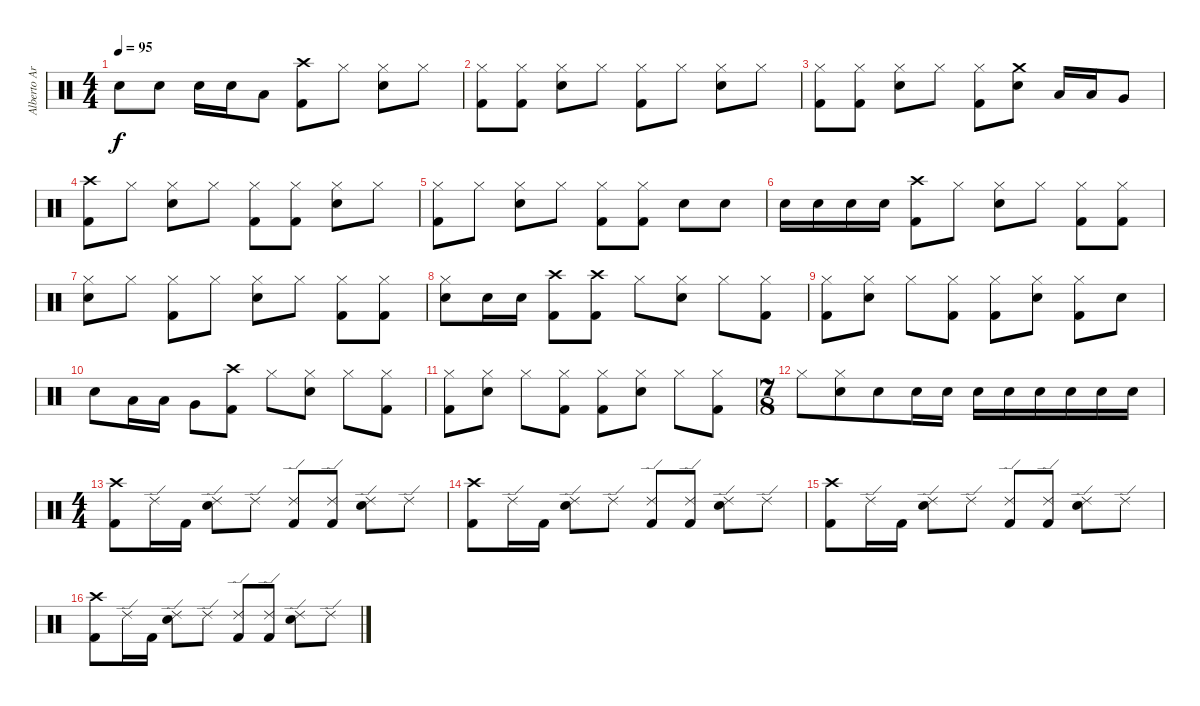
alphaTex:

\track ("Alberto Ardines (Batería)" "Alberto Ar") {instrument percussion}
\staff {score}
\articulation defaults
\ts (4 4)
\tempo 95
\clef neutral
\ks c "Electric Snare (hit)".8{dy f} "Electric Snare (hit)".8 "Electric Snare (hit)".16 "Electric Snare (hit)".16 "Low Tom (hit)".8
("Crash high (hit)" "Kick (hit) 2").8 "Hi-Hat (closed)".8 ("Hi-Hat (closed)" "Electric Snare (hit)").8 "Hi-Hat (closed)".8 |
("Hi-Hat (closed)" "Kick (hit) 2").8 ("Hi-Hat (closed)" "Kick (hit) 2").8 ("Hi-Hat (closed)" "Electric Snare (hit)").8 "Hi-Hat (closed)".8 ("Hi-Hat (closed)" "Kick (hit) 2").8 "Hi-Hat (closed)".8 ("Hi-Hat (closed)" "Electric Snare (hit)").8 "Hi-Hat (closed)".8 |
("Hi-Hat (closed)" "Kick (hit) 2").8 ("Hi-Hat (closed)" "Kick (hit) 2").8 ("Hi-Hat (closed)" "Electric Snare (hit)").8 "Hi-Hat (closed)".8 ("Hi-Hat (closed)" "Kick (hit) 2").8 ("Crash medium (hit)" "Electric Snare (hit)").8 "Low Tom (hit)".16 "Low Tom (hit)".16 "Very Low Tom (hit)".8 |
("Crash high (hit)" "Kick (hit) 2").8 "Hi-Hat (closed)".8 ("Hi-Hat (closed)" "Electric Snare (hit)").8 "Hi-Hat (closed)".8 ("Hi-Hat (closed)" "Kick (hit) 2").8 ("Hi-Hat (closed)" "Kick (hit) 2").8 ("Hi-Hat (closed)" "Electric Snare (hit)").8 "Hi-Hat (closed)".8 |
("Hi-Hat (closed)" "Kick (hit) 2").8 "Hi-Hat (closed)".8 ("Hi-Hat (closed)" "Electric Snare (hit)").8 "Hi-Hat (closed)".8 ("Hi-Hat (closed)" "Kick (hit) 2").8 ("Hi-Hat (closed)" "Kick (hit) 2").8 "Electric Snare (hit)".8 "Electric Snare (hit)".8 |
"Electric Snare (hit)".16 "Electric Snare (hit)".16 "Electric Snare (hit)".16 "Electric Snare (hit)".16 ("Crash high (hit)" "Kick (hit) 2").8 "Hi-Hat (closed)".8 ("Hi-Hat (closed)" "Electric Snare (hit)").8 "Hi-Hat (closed)".8 ("Hi-Hat (closed)" "Kick (hit) 2").8 ("Hi-Hat (closed)" "Kick (hit) 2").8 |
("Hi-Hat (closed)" "Electric Snare (hit)").8 "Hi-Hat (closed)".8 ("Hi-Hat (closed)" "Kick (hit) 2").8 "Hi-Hat (closed)".8 ("Hi-Hat (closed)" "Electric Snare (hit)").8 "Hi-Hat (closed)".8 ("Hi-Hat (closed)" "Kick (hit) 2").8 ("Hi-Hat (closed)" "Kick (hit) 2").8 |
("Hi-Hat (closed)" "Electric Snare (hit)").8 "Electric Snare (hit)".16 "Electric Snare (hit)".16 ("Crash high (hit)" "Kick (hit) 2").8 ("Crash high (hit)" "Kick (hit) 2").8 "Hi-Hat (closed)".8 ("Hi-Hat (closed)" "Electric Snare (hit)").8 "Hi-Hat (closed)".8 ("Hi-Hat (closed)" "Kick (hit) 2").8 |
("Hi-Hat (closed)" "Kick (hit) 2").8 ("Hi-Hat (closed)" "Electric Snare (hit)").8 "Hi-Hat (closed)".8 ("Hi-Hat (closed)" "Kick (hit) 2").8 ("Hi-Hat (closed)" "Kick (hit) 2").8 ("Hi-Hat (closed)" "Electric Snare (hit)").8 ("Hi-Hat (closed)" "Kick (hit) 2").8 "Electric Snare (hit)".8 |
"Electric Snare (hit)".8 "Low Tom (hit)".16 "Low Tom (hit)".16 "Very Low Tom (hit)".8 ("Crash high (hit)" "Kick (hit) 2").8 "Hi-Hat (closed)".8 ("Hi-Hat (closed)" "Electric Snare (hit)").8 "Hi-Hat (closed)".8 ("Hi-Hat (closed)" "Kick (hit) 2").8 |
("Hi-Hat (closed)" "Kick (hit) 2").8 ("Hi-Hat (closed)" "Electric Snare (hit)").8 "Hi-Hat (closed)".8 ("Hi-Hat (closed)" "Kick (hit) 2").8 ("Hi-Hat (closed)" "Kick (hit) 2").8 ("Hi-Hat (closed)" "Electric Snare (hit)").8 "Hi-Hat (closed)".8 ("Hi-Hat (closed)" "Kick (hit) 2").8 |
\ts (7 8)
"Hi-Hat (closed)".8 ("Hi-Hat (closed)" "Electric Snare (hit)").8 "Electric Snare (hit)".8 "Electric Snare (hit)".16 "Electric Snare (hit)".16 "Electric Snare (hit)".16 "Electric Snare (hit)".16 "Electric Snare (hit)".16 "Electric Snare (hit)".16 "Electric Snare (hit)".16 "Electric Snare (hit)".16 |
\ts (4 4)
("Crash high (hit)" "Kick (hit) 2").8 "Ride (edge) 2".16 "Kick (hit) 2".16 ("Ride (edge) 2" "Electric Snare (hit)").8 "Ride (edge) 2".8 ("Ride (edge) 2" "Kick (hit) 2").8 ("Ride (edge) 2" "Kick (hit) 2").8 ("Ride (edge) 2" "Electric Snare (hit)").8 "Ride (edge) 2".8 |
("Crash high (hit)" "Kick (hit) 2").8 "Ride (edge) 2".16 "Kick (hit) 2".16 ("Ride (edge) 2" "Electric Snare (hit)").8 "Ride (edge) 2".8 ("Ride (edge) 2" "Kick (hit) 2").8 ("Ride (edge) 2" "Kick (hit) 2").8 ("Ride (edge) 2" "Electric Snare (hit)").8 "Ride (edge) 2".8 |
("Crash high (hit)" "Kick (hit) 2").8 "Ride (edge) 2".16 "Kick (hit) 2".16 ("Ride (edge) 2" "Electric Snare (hit)").8 "Ride (edge) 2".8 ("Ride (edge) 2" "Kick (hit) 2").8 ("Ride (edge) 2" "Kick (hit) 2").8 ("Ride (edge) 2" "Electric Snare (hit)").8 "Ride (edge) 2".8 |
("Crash high (hit)" "Kick (hit) 2").8 "Ride (edge) 2".16 "Kick (hit) 2".16 ("Ride (edge) 2" "Electric Snare (hit)").8 "Ride (edge) 2".8 ("Ride (edge) 2" "Kick (hit) 2").8 ("Ride (edge) 2" "Kick (hit) 2").8 ("Ride (edge) 2" "Electric Snare (hit)").8 "Ride (edge) 2".8
